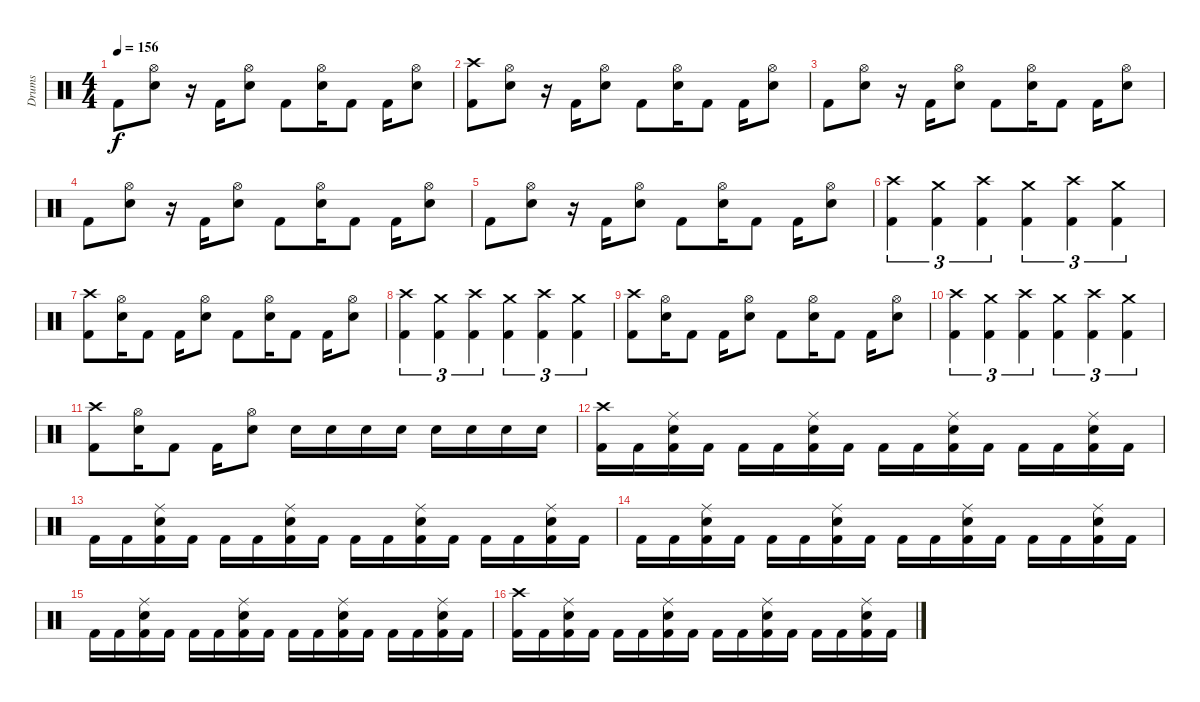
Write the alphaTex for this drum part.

\track ("Drums" "Drums") {instrument percussion}
\staff {score}
\articulation defaults
\ts (4 4)
\tempo 156
\clef neutral
\ks c "Kick (hit) 2".8{dy f}
("Hi-Hat (open)" "Electric Snare (hit)").8 r.16 "Kick (hit) 2".16 ("Hi-Hat (open)" "Electric Snare (hit)").8 "Kick (hit) 2".8 ("Hi-Hat (open)" "Electric Snare (hit)").16 "Kick (hit) 2".8 "Kick (hit) 2".16 ("Hi-Hat (open)" "Electric Snare (hit)").8 |
("Crash high (hit)" "Kick (hit) 2").8 ("Hi-Hat (open)" "Electric Snare (hit)").8 r.16 "Kick (hit) 2".16 ("Hi-Hat (open)" "Electric Snare (hit)").8 "Kick (hit) 2".8 ("Hi-Hat (open)" "Electric Snare (hit)").16 "Kick (hit) 2".8 "Kick (hit) 2".16 ("Hi-Hat (open)" "Electric Snare (hit)").8 |
"Kick (hit) 2".8 ("Hi-Hat (open)" "Electric Snare (hit)").8 r.16 "Kick (hit) 2".16 ("Hi-Hat (open)" "Electric Snare (hit)").8 "Kick (hit) 2".8 ("Hi-Hat (open)" "Electric Snare (hit)").16 "Kick (hit) 2".8 "Kick (hit) 2".16 ("Hi-Hat (open)" "Electric Snare (hit)").8 |
"Kick (hit) 2".8 ("Hi-Hat (open)" "Electric Snare (hit)").8 r.16 "Kick (hit) 2".16 ("Hi-Hat (open)" "Electric Snare (hit)").8 "Kick (hit) 2".8 ("Hi-Hat (open)" "Electric Snare (hit)").16 "Kick (hit) 2".8 "Kick (hit) 2".16 ("Hi-Hat (open)" "Electric Snare (hit)").8 |
"Kick (hit) 2".8 ("Hi-Hat (open)" "Electric Snare (hit)").8 r.16 "Kick (hit) 2".16 ("Hi-Hat (open)" "Electric Snare (hit)").8 "Kick (hit) 2".8 ("Hi-Hat (open)" "Electric Snare (hit)").16 "Kick (hit) 2".8 "Kick (hit) 2".16 ("Hi-Hat (open)" "Electric Snare (hit)").8 |
("Crash high (hit)" "Kick (hit) 2").4{tu (3 2)} ("Crash medium (hit)" "Kick (hit) 2").4{tu (3 2)} ("Crash high (hit)" "Kick (hit) 2").4{tu (3 2)} ("Crash medium (hit)" "Kick (hit) 2").4{tu (3 2)} ("Crash high (hit)" "Kick (hit) 2").4{tu (3 2)} ("Crash medium (hit)" "Kick (hit) 2").4{tu (3 2)} |
("Crash high (hit)" "Kick (hit) 2").8 ("Hi-Hat (open)" "Electric Snare (hit)").16 "Kick (hit) 2".8 "Kick (hit) 2".16 ("Hi-Hat (open)" "Electric Snare (hit)").8 "Kick (hit) 2".8 ("Hi-Hat (open)" "Electric Snare (hit)").16 "Kick (hit) 2".8 "Kick (hit) 2".16 ("Hi-Hat (open)" "Electric Snare (hit)").8 |
("Crash high (hit)" "Kick (hit) 2").4{tu (3 2)} ("Crash medium (hit)" "Kick (hit) 2").4{tu (3 2)} ("Crash high (hit)" "Kick (hit) 2").4{tu (3 2)} ("Crash medium (hit)" "Kick (hit) 2").4{tu (3 2)} ("Crash high (hit)" "Kick (hit) 2").4{tu (3 2)} ("Crash medium (hit)" "Kick (hit) 2").4{tu (3 2)} |
("Crash high (hit)" "Kick (hit) 2").8 ("Hi-Hat (open)" "Electric Snare (hit)").16 "Kick (hit) 2".8 "Kick (hit) 2".16 ("Hi-Hat (open)" "Electric Snare (hit)").8 "Kick (hit) 2".8 ("Hi-Hat (open)" "Electric Snare (hit)").16 "Kick (hit) 2".8 "Kick (hit) 2".16 ("Hi-Hat (open)" "Electric Snare (hit)").8 |
("Crash high (hit)" "Kick (hit) 2").4{tu (3 2)} ("Crash medium (hit)" "Kick (hit) 2").4{tu (3 2)} ("Crash high (hit)" "Kick (hit) 2").4{tu (3 2)} ("Crash medium (hit)" "Kick (hit) 2").4{tu (3 2)} ("Crash high (hit)" "Kick (hit) 2").4{tu (3 2)} ("Crash medium (hit)" "Kick (hit) 2").4{tu (3 2)} |
("Crash high (hit)" "Kick (hit) 2").8 ("Hi-Hat (open)" "Electric Snare (hit)").16 "Kick (hit) 2".8 "Kick (hit) 2".16 ("Hi-Hat (open)" "Electric Snare (hit)").8 "Electric Snare (hit)".16 "Electric Snare (hit)".16 "Electric Snare (hit)".16 "Electric Snare (hit)".16 "Electric Snare (hit)".16 "Electric Snare (hit)".16 "Electric Snare (hit)".16 "Electric Snare (hit)".16 |
("Crash high (hit)" "Kick (hit) 2").16 "Kick (hit) 2".16 ("Ride (middle)" "Electric Snare (hit)" "Kick (hit) 2").16 "Kick (hit) 2".16 "Kick (hit) 2".16 "Kick (hit) 2".16 ("Ride (middle)" "Electric Snare (hit)" "Kick (hit) 2").16 "Kick (hit) 2".16 "Kick (hit) 2".16 "Kick (hit) 2".16 ("Ride (middle)" "Electric Snare (hit)" "Kick (hit) 2").16 "Kick (hit) 2".16 "Kick (hit) 2".16 "Kick (hit) 2".16 ("Ride (middle)" "Electric Snare (hit)" "Kick (hit) 2").16 "Kick (hit) 2".16 |
"Kick (hit) 2".16 "Kick (hit) 2".16 ("Ride (middle)" "Electric Snare (hit)" "Kick (hit) 2").16 "Kick (hit) 2".16 "Kick (hit) 2".16 "Kick (hit) 2".16 ("Ride (middle)" "Electric Snare (hit)" "Kick (hit) 2").16 "Kick (hit) 2".16 "Kick (hit) 2".16 "Kick (hit) 2".16 ("Ride (middle)" "Electric Snare (hit)" "Kick (hit) 2").16 "Kick (hit) 2".16 "Kick (hit) 2".16 "Kick (hit) 2".16 ("Ride (middle)" "Electric Snare (hit)" "Kick (hit) 2").16 "Kick (hit) 2".16 |
"Kick (hit) 2".16 "Kick (hit) 2".16 ("Ride (middle)" "Electric Snare (hit)" "Kick (hit) 2").16 "Kick (hit) 2".16 "Kick (hit) 2".16 "Kick (hit) 2".16 ("Ride (middle)" "Electric Snare (hit)" "Kick (hit) 2").16 "Kick (hit) 2".16 "Kick (hit) 2".16 "Kick (hit) 2".16 ("Ride (middle)" "Electric Snare (hit)" "Kick (hit) 2").16 "Kick (hit) 2".16 "Kick (hit) 2".16 "Kick (hit) 2".16 ("Ride (middle)" "Electric Snare (hit)" "Kick (hit) 2").16 "Kick (hit) 2".16 |
"Kick (hit) 2".16 "Kick (hit) 2".16 ("Ride (middle)" "Electric Snare (hit)" "Kick (hit) 2").16 "Kick (hit) 2".16 "Kick (hit) 2".16 "Kick (hit) 2".16 ("Ride (middle)" "Electric Snare (hit)" "Kick (hit) 2").16 "Kick (hit) 2".16 "Kick (hit) 2".16 "Kick (hit) 2".16 ("Ride (middle)" "Electric Snare (hit)" "Kick (hit) 2").16 "Kick (hit) 2".16 "Kick (hit) 2".16 "Kick (hit) 2".16 ("Ride (middle)" "Electric Snare (hit)" "Kick (hit) 2").16 "Kick (hit) 2".16 |
("Crash high (hit)" "Kick (hit) 2").16 "Kick (hit) 2".16 ("Ride (middle)" "Electric Snare (hit)" "Kick (hit) 2").16 "Kick (hit) 2".16 "Kick (hit) 2".16 "Kick (hit) 2".16 ("Ride (middle)" "Electric Snare (hit)" "Kick (hit) 2").16 "Kick (hit) 2".16 "Kick (hit) 2".16 "Kick (hit) 2".16 ("Ride (middle)" "Electric Snare (hit)" "Kick (hit) 2").16 "Kick (hit) 2".16 "Kick (hit) 2".16 "Kick (hit) 2".16 ("Ride (middle)" "Electric Snare (hit)" "Kick (hit) 2").16 "Kick (hit) 2".16
